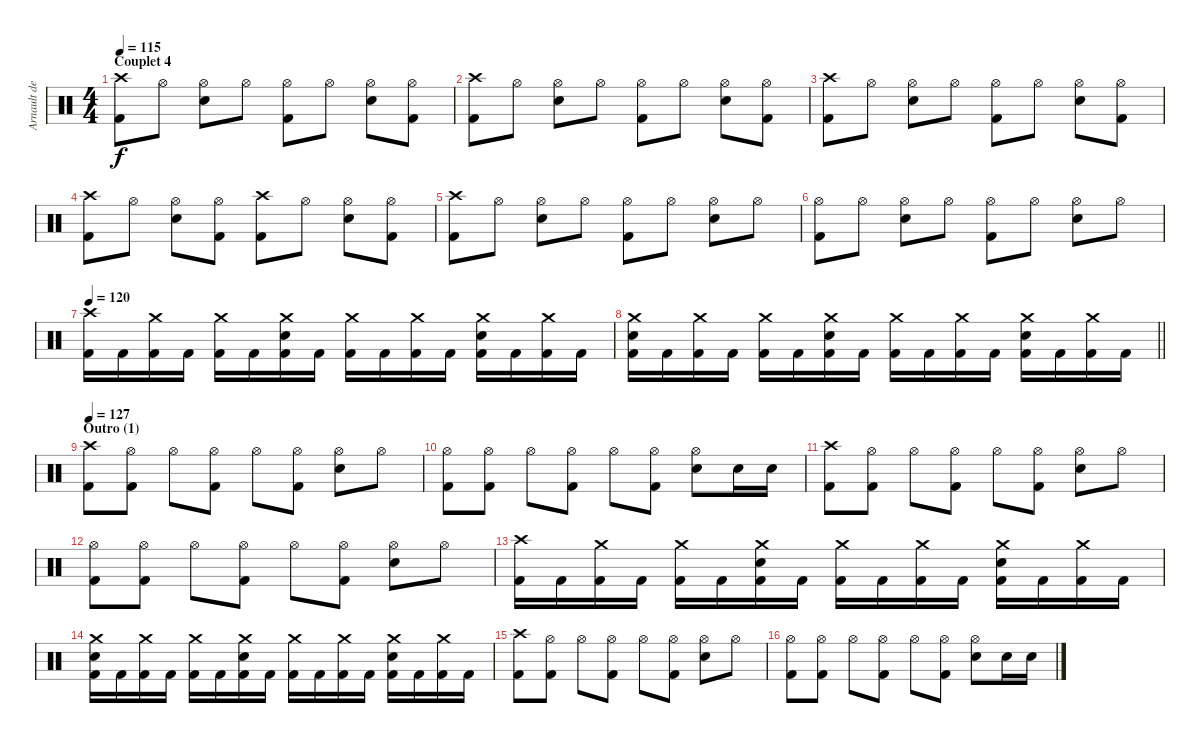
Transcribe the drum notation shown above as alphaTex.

\track ("Arnault de Staël" "Arnault de") {instrument percussion}
\staff {score}
\articulation defaults
\ts (4 4)
\section ("" "Couplet 4")
\tempo 115
\clef neutral
\ks c
("Crash high (hit)" "Kick (hit) 2").8{dy f} "Hi-Hat (open)".8 ("Hi-Hat (open)" "Electric Snare (hit)").8 "Hi-Hat (open)".8 ("Hi-Hat (open)" "Kick (hit) 2").8 "Hi-Hat (open)".8 ("Hi-Hat (open)" "Electric Snare (hit)").8 ("Hi-Hat (open)" "Kick (hit) 2").8 |
("Crash high (hit)" "Kick (hit) 2").8 "Hi-Hat (open)".8 ("Hi-Hat (open)" "Electric Snare (hit)").8 "Hi-Hat (open)".8 ("Hi-Hat (open)" "Kick (hit) 2").8 "Hi-Hat (open)".8 ("Hi-Hat (open)" "Electric Snare (hit)").8 ("Hi-Hat (open)" "Kick (hit) 2").8 |
("Crash high (hit)" "Kick (hit) 2").8 "Hi-Hat (open)".8 ("Hi-Hat (open)" "Electric Snare (hit)").8 "Hi-Hat (open)".8 ("Hi-Hat (open)" "Kick (hit) 2").8 "Hi-Hat (open)".8 ("Hi-Hat (open)" "Electric Snare (hit)").8 ("Hi-Hat (open)" "Kick (hit) 2").8 |
("Crash high (hit)" "Kick (hit) 2").8 "Hi-Hat (open)".8 ("Hi-Hat (open)" "Electric Snare (hit)").8 ("Hi-Hat (open)" "Kick (hit) 2").8 ("Crash high (hit)" "Kick (hit) 2").8 "Hi-Hat (open)".8 ("Hi-Hat (open)" "Electric Snare (hit)").8 ("Hi-Hat (open)" "Kick (hit) 2").8 |
("Crash high (hit)" "Kick (hit) 2").8 "Hi-Hat (open)".8 ("Hi-Hat (open)" "Electric Snare (hit)").8 "Hi-Hat (open)".8 ("Hi-Hat (open)" "Kick (hit) 2").8 "Hi-Hat (open)".8 ("Hi-Hat (open)" "Electric Snare (hit)").8 "Hi-Hat (open)".8 |
("Hi-Hat (open)" "Kick (hit) 2").8 "Hi-Hat (open)".8 ("Hi-Hat (open)" "Electric Snare (hit)").8 "Hi-Hat (open)".8 ("Hi-Hat (open)" "Kick (hit) 2").8 "Hi-Hat (open)".8 ("Hi-Hat (open)" "Electric Snare (hit)").8 "Hi-Hat (open)".8 |
\tempo 120
("Crash high (hit)" "Kick (hit) 2").16 "Kick (hit) 2".16 ("Crash medium (hit)" "Kick (hit) 2").16 "Kick (hit) 2".16 ("Crash medium (hit)" "Kick (hit) 2").16 "Kick (hit) 2".16 ("Crash medium (hit)" "Electric Snare (hit)" "Kick (hit) 2").16 "Kick (hit) 2".16 ("Crash medium (hit)" "Kick (hit) 2").16 "Kick (hit) 2".16 ("Crash medium (hit)" "Kick (hit) 2").16 "Kick (hit) 2".16 ("Crash medium (hit)" "Electric Snare (hit)" "Kick (hit) 2").16 "Kick (hit) 2".16 ("Crash medium (hit)" "Kick (hit) 2").16 "Kick (hit) 2".16 |
\barLineRight lightlight
("Crash medium (hit)" "Electric Snare (hit)" "Kick (hit) 2").16 "Kick (hit) 2".16 ("Crash medium (hit)" "Kick (hit) 2").16 "Kick (hit) 2".16 ("Crash medium (hit)" "Kick (hit) 2").16 "Kick (hit) 2".16 ("Crash medium (hit)" "Electric Snare (hit)" "Kick (hit) 2").16 "Kick (hit) 2".16 ("Crash medium (hit)" "Kick (hit) 2").16 "Kick (hit) 2".16 ("Crash medium (hit)" "Kick (hit) 2").16 "Kick (hit) 2".16 ("Crash medium (hit)" "Electric Snare (hit)" "Kick (hit) 2").16 "Kick (hit) 2".16 ("Crash medium (hit)" "Kick (hit) 2").16 "Kick (hit) 2".16 |
\section ("" "Outro (1)")
\tempo 127
("Crash high (hit)" "Kick (hit) 2").8 ("Hi-Hat (open)" "Kick (hit) 2").8 "Hi-Hat (open)".8 ("Hi-Hat (open)" "Kick (hit) 2").8 "Hi-Hat (open)".8 ("Hi-Hat (open)" "Kick (hit) 2").8 ("Hi-Hat (open)" "Electric Snare (hit)").8 "Hi-Hat (open)".8 |
("Hi-Hat (open)" "Kick (hit) 2").8 ("Hi-Hat (open)" "Kick (hit) 2").8 "Hi-Hat (open)".8 ("Hi-Hat (open)" "Kick (hit) 2").8 "Hi-Hat (open)".8 ("Hi-Hat (open)" "Kick (hit) 2").8 ("Hi-Hat (open)" "Electric Snare (hit)").8 "Electric Snare (hit)".16 "Electric Snare (hit)".16 |
("Crash high (hit)" "Kick (hit) 2").8 ("Hi-Hat (open)" "Kick (hit) 2").8 "Hi-Hat (open)".8 ("Hi-Hat (open)" "Kick (hit) 2").8 "Hi-Hat (open)".8 ("Hi-Hat (open)" "Kick (hit) 2").8 ("Hi-Hat (open)" "Electric Snare (hit)").8 "Hi-Hat (open)".8 |
("Hi-Hat (open)" "Kick (hit) 2").8 ("Hi-Hat (open)" "Kick (hit) 2").8 "Hi-Hat (open)".8 ("Hi-Hat (open)" "Kick (hit) 2").8 "Hi-Hat (open)".8 ("Hi-Hat (open)" "Kick (hit) 2").8 ("Hi-Hat (open)" "Electric Snare (hit)").8 "Hi-Hat (open)".8 |
("Crash high (hit)" "Kick (hit) 2").16 "Kick (hit) 2".16 ("Crash medium (hit)" "Kick (hit) 2").16 "Kick (hit) 2".16 ("Crash medium (hit)" "Kick (hit) 2").16 "Kick (hit) 2".16 ("Crash medium (hit)" "Electric Snare (hit)" "Kick (hit) 2").16 "Kick (hit) 2".16 ("Crash medium (hit)" "Kick (hit) 2").16 "Kick (hit) 2".16 ("Crash medium (hit)" "Kick (hit) 2").16 "Kick (hit) 2".16 ("Crash medium (hit)" "Electric Snare (hit)" "Kick (hit) 2").16 "Kick (hit) 2".16 ("Crash medium (hit)" "Kick (hit) 2").16 "Kick (hit) 2".16 |
("Crash medium (hit)" "Electric Snare (hit)" "Kick (hit) 2").16 "Kick (hit) 2".16 ("Crash medium (hit)" "Kick (hit) 2").16 "Kick (hit) 2".16 ("Crash medium (hit)" "Kick (hit) 2").16 "Kick (hit) 2".16 ("Crash medium (hit)" "Electric Snare (hit)" "Kick (hit) 2").16 "Kick (hit) 2".16 ("Crash medium (hit)" "Kick (hit) 2").16 "Kick (hit) 2".16 ("Crash medium (hit)" "Kick (hit) 2").16 "Kick (hit) 2".16 ("Crash medium (hit)" "Electric Snare (hit)" "Kick (hit) 2").16 "Kick (hit) 2".16 ("Crash medium (hit)" "Kick (hit) 2").16 "Kick (hit) 2".16 |
("Crash high (hit)" "Kick (hit) 2").8 ("Hi-Hat (open)" "Kick (hit) 2").8 "Hi-Hat (open)".8 ("Hi-Hat (open)" "Kick (hit) 2").8 "Hi-Hat (open)".8 ("Hi-Hat (open)" "Kick (hit) 2").8 ("Hi-Hat (open)" "Electric Snare (hit)").8 "Hi-Hat (open)".8 |
("Hi-Hat (open)" "Kick (hit) 2").8 ("Hi-Hat (open)" "Kick (hit) 2").8 "Hi-Hat (open)".8 ("Hi-Hat (open)" "Kick (hit) 2").8 "Hi-Hat (open)".8 ("Hi-Hat (open)" "Kick (hit) 2").8 ("Hi-Hat (open)" "Electric Snare (hit)").8 "Electric Snare (hit)".16 "Electric Snare (hit)".16
